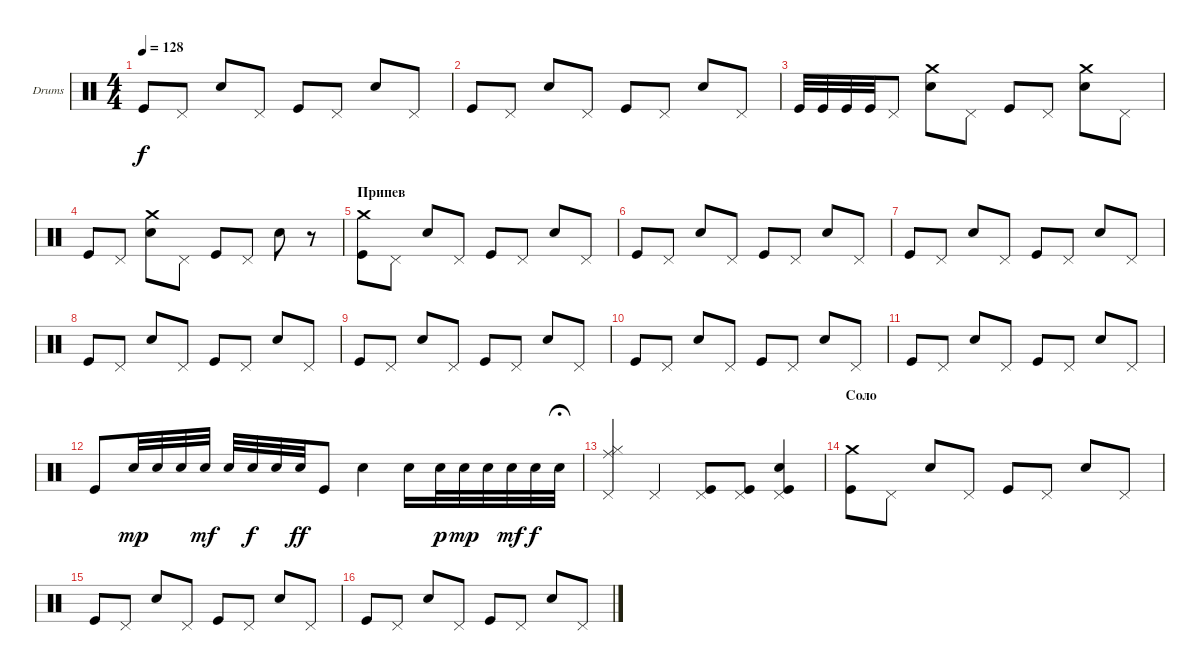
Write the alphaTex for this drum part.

\defaultSystemsLayout 4
\bracketExtendMode groupsimilarinstruments
\firstSystemTrackNameOrientation horizontal
\otherSystemsTrackNameOrientation horizontal
\track ("Е. Кулаков" "Drums") {instrument percussion}
\staff {score}
\articulation defaults
\ts (4 4)
\tempo 128
\clef neutral
\ks c "Kick (hit)".8{dy f} "Pedal Hi-Hat (hit)".8 "Snare (hit) 2".8 "Pedal Hi-Hat (hit)".8 "Kick (hit)".8 "Pedal Hi-Hat (hit)".8 "Snare (hit) 2".8 "Pedal Hi-Hat (hit)".8
|
"Kick (hit)".8 "Pedal Hi-Hat (hit)".8 "Snare (hit) 2".8 "Pedal Hi-Hat (hit)".8 "Kick (hit)".8 "Pedal Hi-Hat (hit)".8 "Snare (hit) 2".8 "Pedal Hi-Hat (hit)".8 |
"Kick (hit)".32 "Kick (hit)".32 "Kick (hit)".32 "Kick (hit)".32 "Pedal Hi-Hat (hit)".8 ("Snare (hit) 2" "Crash medium (hit)").8 "Pedal Hi-Hat (hit)".8 "Kick (hit)".8 "Pedal Hi-Hat (hit)".8 ("Snare (hit) 2" "Crash medium (hit)").8 "Pedal Hi-Hat (hit)".8 |
"Kick (hit)".8 "Pedal Hi-Hat (hit)".8 ("Snare (hit) 2" "Crash medium (hit)").8 "Pedal Hi-Hat (hit)".8 "Kick (hit)".8 "Pedal Hi-Hat (hit)".8 "Snare (hit) 2".8 r.8 |
\section ("" "Припев")
("Kick (hit)" "Crash medium (hit)").8 "Pedal Hi-Hat (hit)".8 "Snare (hit) 2".8 "Pedal Hi-Hat (hit)".8 "Kick (hit)".8 "Pedal Hi-Hat (hit)".8 "Snare (hit) 2".8 "Pedal Hi-Hat (hit)".8 |
"Kick (hit)".8 "Pedal Hi-Hat (hit)".8 "Snare (hit) 2".8 "Pedal Hi-Hat (hit)".8 "Kick (hit)".8 "Pedal Hi-Hat (hit)".8 "Snare (hit) 2".8 "Pedal Hi-Hat (hit)".8 |
"Kick (hit)".8 "Pedal Hi-Hat (hit)".8 "Snare (hit) 2".8 "Pedal Hi-Hat (hit)".8 "Kick (hit)".8 "Pedal Hi-Hat (hit)".8 "Snare (hit) 2".8 "Pedal Hi-Hat (hit)".8 |
"Kick (hit)".8 "Pedal Hi-Hat (hit)".8 "Snare (hit) 2".8 "Pedal Hi-Hat (hit)".8 "Kick (hit)".8 "Pedal Hi-Hat (hit)".8 "Snare (hit) 2".8 "Pedal Hi-Hat (hit)".8 |
"Kick (hit)".8 "Pedal Hi-Hat (hit)".8 "Snare (hit) 2".8 "Pedal Hi-Hat (hit)".8 "Kick (hit)".8 "Pedal Hi-Hat (hit)".8 "Snare (hit) 2".8 "Pedal Hi-Hat (hit)".8 |
"Kick (hit)".8 "Pedal Hi-Hat (hit)".8 "Snare (hit) 2".8 "Pedal Hi-Hat (hit)".8 "Kick (hit)".8 "Pedal Hi-Hat (hit)".8 "Snare (hit) 2".8 "Pedal Hi-Hat (hit)".8 |
"Kick (hit)".8 "Pedal Hi-Hat (hit)".8 "Snare (hit) 2".8 "Pedal Hi-Hat (hit)".8 "Kick (hit)".8 "Pedal Hi-Hat (hit)".8 "Snare (hit) 2".8 "Pedal Hi-Hat (hit)".8 |
"Kick (hit)".8 "Snare (hit) 2".32{dy mp} "Snare (hit) 2".32 "Snare (hit) 2".32 "Snare (hit) 2".32{dy mf} "Snare (hit) 2".32 "Snare (hit) 2".32{dy f} "Snare (hit) 2".32 "Snare (hit) 2".32{dy ff} "Kick (hit)".8 "Snare (hit) 2".4 "Snare (hit) 2".16 "Snare (hit) 2".32{dy p} "Snare (hit) 2".32{dy mp} "Snare (hit) 2".32 "Snare (hit) 2".32{dy mf} "Snare (hit) 2".32{dy f} "Snare (hit) 2".32{fermata (medium 0.5)} |
("Pedal Hi-Hat (hit)" "Hi-Hat (closed)" "Ride (middle)").4 "Pedal Hi-Hat (hit)".4 ("Pedal Hi-Hat (hit)" "Kick (hit)").8 ("Pedal Hi-Hat (hit)" "Kick (hit)").8 ("Pedal Hi-Hat (hit)" "Snare (hit) 2" "Kick (hit)").4 |
\section ("" "Соло")
("Kick (hit)" "Crash medium (hit)").8 "Pedal Hi-Hat (hit)".8 "Snare (hit) 2".8 "Pedal Hi-Hat (hit)".8 "Kick (hit)".8 "Pedal Hi-Hat (hit)".8 "Snare (hit) 2".8 "Pedal Hi-Hat (hit)".8 |
"Kick (hit)".8 "Pedal Hi-Hat (hit)".8 "Snare (hit) 2".8 "Pedal Hi-Hat (hit)".8 "Kick (hit)".8 "Pedal Hi-Hat (hit)".8 "Snare (hit) 2".8 "Pedal Hi-Hat (hit)".8 |
"Kick (hit)".8 "Pedal Hi-Hat (hit)".8 "Snare (hit) 2".8 "Pedal Hi-Hat (hit)".8 "Kick (hit)".8 "Pedal Hi-Hat (hit)".8 "Snare (hit) 2".8 "Pedal Hi-Hat (hit)".8
